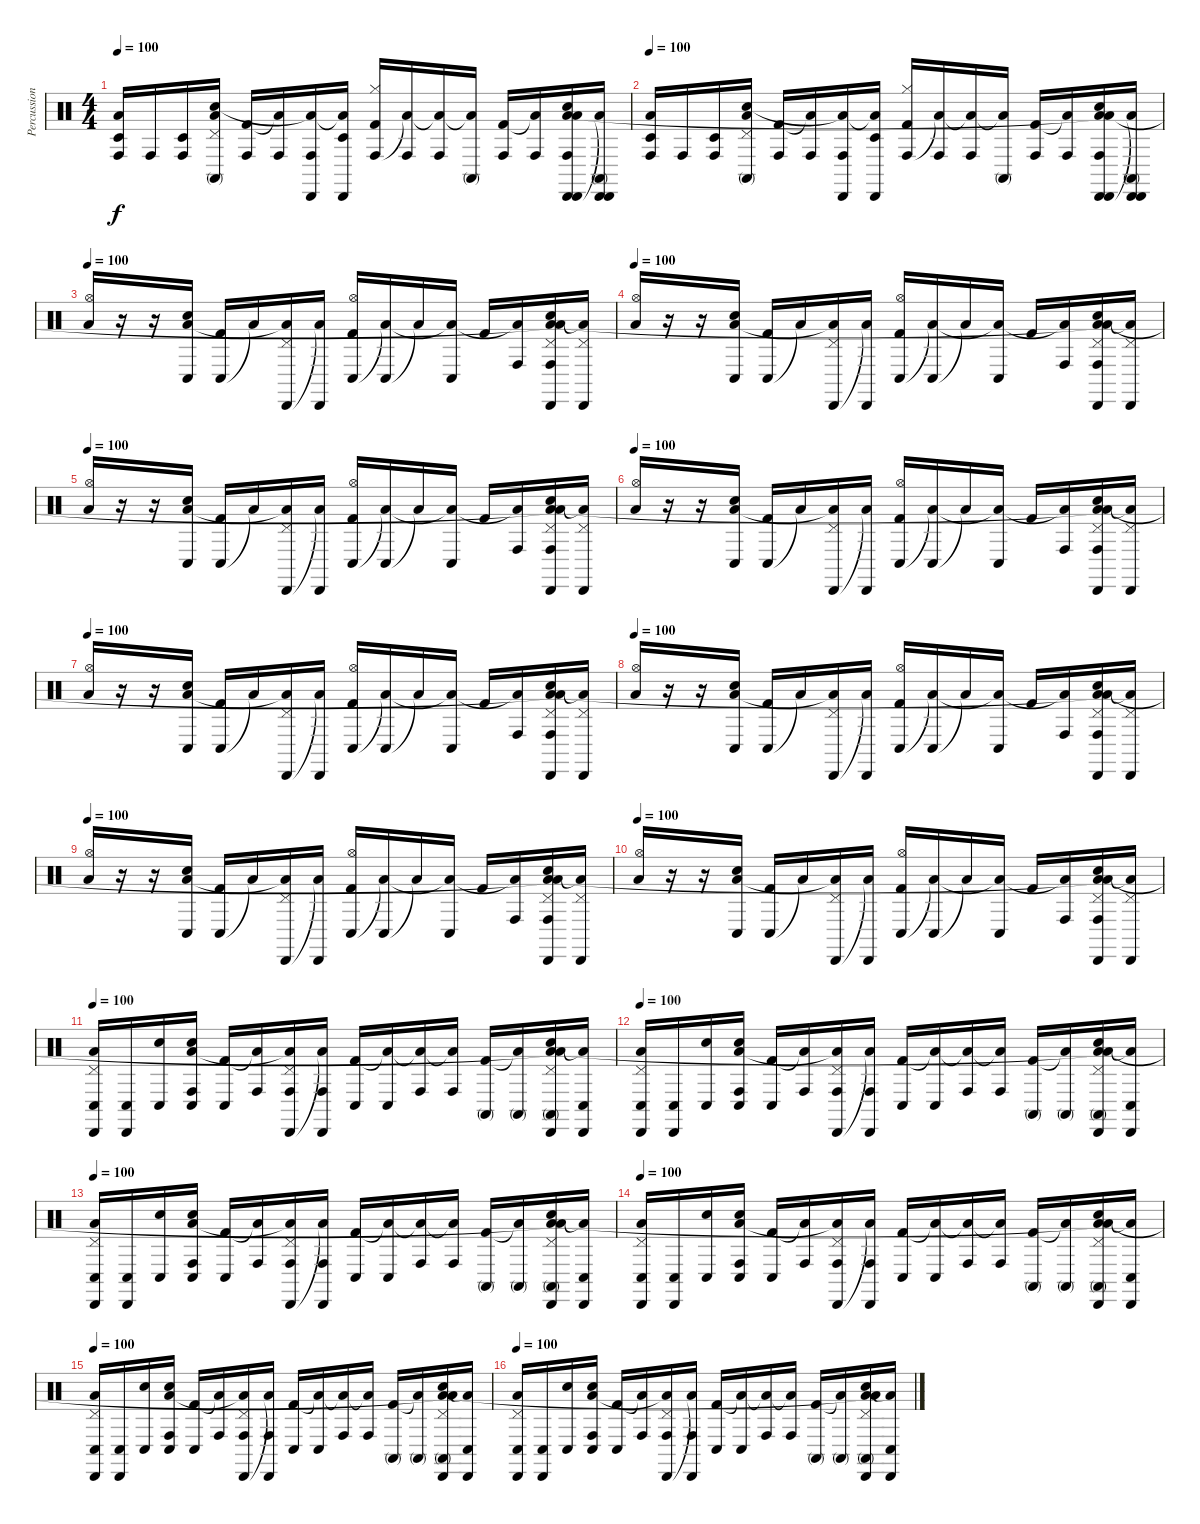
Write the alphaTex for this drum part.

\track ("Percussion" "Percussion") {instrument percussion}
\staff {score}
\articulation defaults
\ts (4 4)
\tempo 100
\clef neutral
\ks c
("Timbale low (hit)" "Conga high (hit)" "Low Floor Tom (hit)").16{dy f} "Conga high (hit)".16 ("Timbale low (hit)" "Conga high (hit)").16 ("Pedal Hi-Hat (hit)" "Conga high (mute)" "Hand Clap (hit)" "Low Tom (hit)").16 ("Conga high (hit)" "Kick (hit) 2").16 ("Conga high (hit)" "Low Tom (hit)"{t}).16 ("Conga high (hit)" "Cabasa (hit)" "Low Tom (hit)"{t}).16 ("Timbale low (hit)" "Cabasa (hit)" "Low Tom (hit)"{t}).16 ("Hi-Hat (closed)" "Conga high (hit)" "Kick (hit) 2").16 ("Conga high (hit)" "Low Tom (hit)"{t}).16 ("Conga high (hit)" "Low Tom (hit)"{t}).16 ("Conga high (mute)" "Low Tom (hit)"{t}).16 ("Conga high (hit)" "Kick (hit) 2").16 ("Conga high (hit)" "Low Tom (hit)"{t}).16 ("Cabasa (hit)" "Conga high (hit)" "Hand Clap (hit)" "Cabasa (hit)" "Low Tom (hit)"{t} "Low Floor Tom (hit)").16 ("Cabasa (hit)" "Conga high (mute)" "Cabasa (hit)" "Low Tom (hit)"{t}).16 |
\tempo 100
("Timbale low (hit)" "Conga high (hit)" "Low Floor Tom (hit)").16 "Conga high (hit)".16 ("Timbale low (hit)" "Conga high (hit)").16 ("Pedal Hi-Hat (hit)" "Conga high (mute)" "Hand Clap (hit)" "Low Tom (hit)").16 ("Conga high (hit)" "Kick (hit) 2").16 ("Conga high (hit)" "Low Tom (hit)"{t}).16 ("Conga high (hit)" "Cabasa (hit)" "Low Tom (hit)"{t}).16 ("Timbale low (hit)" "Cabasa (hit)" "Low Tom (hit)"{t}).16 ("Hi-Hat (closed)" "Conga high (hit)" "Kick (hit) 2").16 ("Conga high (hit)" "Low Tom (hit)"{t}).16 ("Conga high (hit)" "Low Tom (hit)"{t}).16 ("Conga high (mute)" "Low Tom (hit)"{t}).16 ("Conga high (hit)" "Kick (hit) 2").16 ("Conga high (hit)" "Low Tom (hit)"{t}).16 ("Cabasa (hit)" "Conga high (hit)" "Hand Clap (hit)" "Cabasa (hit)" "Low Tom (hit)"{t} "Low Floor Tom (hit)").16 ("Cabasa (hit)" "Conga high (mute)" "Cabasa (hit)" "Low Tom (hit)"{t}).16 |
\tempo 100
("Hi-Hat (open)" "Low Floor Tom (hit)").16 r.16 r.16 ("Conga low (hit)" "Hand Clap (hit)" "Low Tom (hit)").16 ("Conga low (hit)" "Kick (hit) 2").16 "Low Tom (hit)"{t}.16 ("Pedal Hi-Hat (hit)" "Cabasa (hit)" "Low Tom (hit)"{t}).16 ("Cabasa (hit)" "Low Tom (hit)"{t}).16 ("Hi-Hat (open)" "Conga low (hit)" "Kick (hit) 2").16 ("Conga low (hit)" "Low Tom (hit)"{t}).16 "Low Tom (hit)"{t}.16 ("Conga low (hit)" "Low Tom (hit)"{t}).16 "Kick (hit) 2".16 ("Conga high (hit)" "Low Tom (hit)"{t}).16 ("Pedal Hi-Hat (hit)" "Conga high (hit)" "Hand Clap (hit)" "Cabasa (hit)" "Low Tom (hit)"{t} "Low Floor Tom (hit)").16 ("Pedal Hi-Hat (hit)" "Cabasa (hit)" "Low Tom (hit)"{t}).16 |
\tempo 100
("Hi-Hat (open)" "Low Floor Tom (hit)").16 r.16 r.16 ("Conga low (hit)" "Hand Clap (hit)" "Low Tom (hit)").16 ("Conga low (hit)" "Kick (hit) 2").16 "Low Tom (hit)"{t}.16 ("Pedal Hi-Hat (hit)" "Cabasa (hit)" "Low Tom (hit)"{t}).16 ("Cabasa (hit)" "Low Tom (hit)"{t}).16 ("Hi-Hat (open)" "Conga low (hit)" "Kick (hit) 2").16 ("Conga low (hit)" "Low Tom (hit)"{t}).16 "Low Tom (hit)"{t}.16 ("Conga low (hit)" "Low Tom (hit)"{t}).16 "Kick (hit) 2".16 ("Conga high (hit)" "Low Tom (hit)"{t}).16 ("Pedal Hi-Hat (hit)" "Conga high (hit)" "Hand Clap (hit)" "Cabasa (hit)" "Low Tom (hit)"{t} "Low Floor Tom (hit)").16 ("Pedal Hi-Hat (hit)" "Cabasa (hit)" "Low Tom (hit)"{t}).16 |
\tempo 100
("Hi-Hat (open)" "Low Floor Tom (hit)").16 r.16 r.16 ("Conga low (hit)" "Hand Clap (hit)" "Low Tom (hit)").16 ("Conga low (hit)" "Kick (hit) 2").16 "Low Tom (hit)"{t}.16 ("Pedal Hi-Hat (hit)" "Cabasa (hit)" "Low Tom (hit)"{t}).16 ("Cabasa (hit)" "Low Tom (hit)"{t}).16 ("Hi-Hat (open)" "Conga low (hit)" "Kick (hit) 2").16 ("Conga low (hit)" "Low Tom (hit)"{t}).16 "Low Tom (hit)"{t}.16 ("Conga low (hit)" "Low Tom (hit)"{t}).16 "Kick (hit) 2".16 ("Conga high (hit)" "Low Tom (hit)"{t}).16 ("Pedal Hi-Hat (hit)" "Conga high (hit)" "Hand Clap (hit)" "Cabasa (hit)" "Low Tom (hit)"{t} "Low Floor Tom (hit)").16 ("Pedal Hi-Hat (hit)" "Cabasa (hit)" "Low Tom (hit)"{t}).16 |
\tempo 100
("Hi-Hat (open)" "Low Floor Tom (hit)").16 r.16 r.16 ("Conga low (hit)" "Hand Clap (hit)" "Low Tom (hit)").16 ("Conga low (hit)" "Kick (hit) 2").16 "Low Tom (hit)"{t}.16 ("Pedal Hi-Hat (hit)" "Cabasa (hit)" "Low Tom (hit)"{t}).16 ("Cabasa (hit)" "Low Tom (hit)"{t}).16 ("Hi-Hat (open)" "Conga low (hit)" "Kick (hit) 2").16 ("Conga low (hit)" "Low Tom (hit)"{t}).16 "Low Tom (hit)"{t}.16 ("Conga low (hit)" "Low Tom (hit)"{t}).16 "Kick (hit) 2".16 ("Conga high (hit)" "Low Tom (hit)"{t}).16 ("Pedal Hi-Hat (hit)" "Conga high (hit)" "Hand Clap (hit)" "Cabasa (hit)" "Low Tom (hit)"{t} "Low Floor Tom (hit)").16 ("Pedal Hi-Hat (hit)" "Cabasa (hit)" "Low Tom (hit)"{t}).16 |
\tempo 100
("Hi-Hat (open)" "Low Floor Tom (hit)").16 r.16 r.16 ("Conga low (hit)" "Hand Clap (hit)" "Low Tom (hit)").16 ("Conga low (hit)" "Kick (hit) 2").16 "Low Tom (hit)"{t}.16 ("Pedal Hi-Hat (hit)" "Cabasa (hit)" "Low Tom (hit)"{t}).16 ("Cabasa (hit)" "Low Tom (hit)"{t}).16 ("Hi-Hat (open)" "Conga low (hit)" "Kick (hit) 2").16 ("Conga low (hit)" "Low Tom (hit)"{t}).16 "Low Tom (hit)"{t}.16 ("Conga low (hit)" "Low Tom (hit)"{t}).16 "Kick (hit) 2".16 ("Conga high (hit)" "Low Tom (hit)"{t}).16 ("Pedal Hi-Hat (hit)" "Conga high (hit)" "Hand Clap (hit)" "Cabasa (hit)" "Low Tom (hit)"{t} "Low Floor Tom (hit)").16 ("Pedal Hi-Hat (hit)" "Cabasa (hit)" "Low Tom (hit)"{t}).16 |
\tempo 100
("Hi-Hat (open)" "Low Floor Tom (hit)").16 r.16 r.16 ("Conga low (hit)" "Hand Clap (hit)" "Low Tom (hit)").16 ("Conga low (hit)" "Kick (hit) 2").16 "Low Tom (hit)"{t}.16 ("Pedal Hi-Hat (hit)" "Cabasa (hit)" "Low Tom (hit)"{t}).16 ("Cabasa (hit)" "Low Tom (hit)"{t}).16 ("Hi-Hat (open)" "Conga low (hit)" "Kick (hit) 2").16 ("Conga low (hit)" "Low Tom (hit)"{t}).16 "Low Tom (hit)"{t}.16 ("Conga low (hit)" "Low Tom (hit)"{t}).16 "Kick (hit) 2".16 ("Conga high (hit)" "Low Tom (hit)"{t}).16 ("Pedal Hi-Hat (hit)" "Conga high (hit)" "Hand Clap (hit)" "Cabasa (hit)" "Low Tom (hit)"{t} "Low Floor Tom (hit)").16 ("Pedal Hi-Hat (hit)" "Cabasa (hit)" "Low Tom (hit)"{t}).16 |
\tempo 100
("Hi-Hat (open)" "Low Floor Tom (hit)").16 r.16 r.16 ("Conga low (hit)" "Hand Clap (hit)" "Low Tom (hit)").16 ("Conga low (hit)" "Kick (hit) 2").16 "Low Tom (hit)"{t}.16 ("Pedal Hi-Hat (hit)" "Cabasa (hit)" "Low Tom (hit)"{t}).16 ("Cabasa (hit)" "Low Tom (hit)"{t}).16 ("Hi-Hat (open)" "Conga low (hit)" "Kick (hit) 2").16 ("Conga low (hit)" "Low Tom (hit)"{t}).16 "Low Tom (hit)"{t}.16 ("Conga low (hit)" "Low Tom (hit)"{t}).16 "Kick (hit) 2".16 ("Conga high (hit)" "Low Tom (hit)"{t}).16 ("Pedal Hi-Hat (hit)" "Conga high (hit)" "Hand Clap (hit)" "Cabasa (hit)" "Low Tom (hit)"{t} "Low Floor Tom (hit)").16 ("Pedal Hi-Hat (hit)" "Cabasa (hit)" "Low Tom (hit)"{t}).16 |
\tempo 100
("Hi-Hat (open)" "Low Floor Tom (hit)").16 r.16 r.16 ("Conga low (hit)" "Hand Clap (hit)" "Low Tom (hit)").16 ("Conga low (hit)" "Kick (hit) 2").16 "Low Tom (hit)"{t}.16 ("Pedal Hi-Hat (hit)" "Cabasa (hit)" "Low Tom (hit)"{t}).16 ("Cabasa (hit)" "Low Tom (hit)"{t}).16 ("Hi-Hat (open)" "Conga low (hit)" "Kick (hit) 2").16 ("Conga low (hit)" "Low Tom (hit)"{t}).16 "Low Tom (hit)"{t}.16 ("Conga low (hit)" "Low Tom (hit)"{t}).16 "Kick (hit) 2".16 ("Conga high (hit)" "Low Tom (hit)"{t}).16 ("Pedal Hi-Hat (hit)" "Conga high (hit)" "Hand Clap (hit)" "Cabasa (hit)" "Low Tom (hit)"{t} "Low Floor Tom (hit)").16 ("Pedal Hi-Hat (hit)" "Cabasa (hit)" "Low Tom (hit)"{t}).16 |
\tempo 100
("Pedal Hi-Hat (hit)" "Conga low (hit)" "Cabasa (hit)" "Low Floor Tom (hit)").16 ("Conga low (hit)" "Cabasa (hit)").16 ("Conga low (hit)" "Hand Clap (hit)").16 ("Conga low (hit)" "Conga high (hit)" "Hand Clap (hit)" "Low Tom (hit)").16 ("Conga low (hit)" "Kick (hit) 2").16 ("Conga high (hit)" "Low Tom (hit)"{t}).16 ("Pedal Hi-Hat (hit)" "Conga high (hit)" "Cabasa (hit)" "Low Tom (hit)"{t}).16 ("Conga high (hit)" "Cabasa (hit)" "Low Tom (hit)"{t}).16 ("Conga low (hit)" "Kick (hit) 2").16 ("Conga low (hit)" "Low Tom (hit)"{t}).16 ("Conga high (hit)" "Low Tom (hit)"{t}).16 ("Conga high (hit)" "Low Tom (hit)"{t}).16 ("Conga high (mute)" "Kick (hit) 2").16 ("Conga high (mute)" "Low Tom (hit)"{t}).16 ("Pedal Hi-Hat (hit)" "Conga high (mute)" "Hand Clap (hit)" "Cabasa (hit)" "Low Tom (hit)"{t} "Low Floor Tom (hit)").16 ("Conga low (hit)" "Cabasa (hit)" "Low Tom (hit)"{t}).16 |
\tempo 100
("Pedal Hi-Hat (hit)" "Conga low (hit)" "Cabasa (hit)" "Low Floor Tom (hit)").16 ("Conga low (hit)" "Cabasa (hit)").16 ("Conga low (hit)" "Hand Clap (hit)").16 ("Conga low (hit)" "Conga high (hit)" "Hand Clap (hit)" "Low Tom (hit)").16 ("Conga low (hit)" "Kick (hit) 2").16 ("Conga high (hit)" "Low Tom (hit)"{t}).16 ("Pedal Hi-Hat (hit)" "Conga high (hit)" "Cabasa (hit)" "Low Tom (hit)"{t}).16 ("Conga high (hit)" "Cabasa (hit)" "Low Tom (hit)"{t}).16 ("Conga low (hit)" "Kick (hit) 2").16 ("Conga low (hit)" "Low Tom (hit)"{t}).16 ("Conga high (hit)" "Low Tom (hit)"{t}).16 ("Conga high (hit)" "Low Tom (hit)"{t}).16 ("Conga high (mute)" "Kick (hit) 2").16 ("Conga high (mute)" "Low Tom (hit)"{t}).16 ("Pedal Hi-Hat (hit)" "Conga high (mute)" "Hand Clap (hit)" "Cabasa (hit)" "Low Tom (hit)"{t} "Low Floor Tom (hit)").16 ("Conga low (hit)" "Cabasa (hit)" "Low Tom (hit)"{t}).16 |
\tempo 100
("Pedal Hi-Hat (hit)" "Conga low (hit)" "Cabasa (hit)" "Low Floor Tom (hit)").16 ("Conga low (hit)" "Cabasa (hit)").16 ("Conga low (hit)" "Hand Clap (hit)").16 ("Conga low (hit)" "Conga high (hit)" "Hand Clap (hit)" "Low Tom (hit)").16 ("Conga low (hit)" "Kick (hit) 2").16 ("Conga high (hit)" "Low Tom (hit)"{t}).16 ("Pedal Hi-Hat (hit)" "Conga high (hit)" "Cabasa (hit)" "Low Tom (hit)"{t}).16 ("Conga high (hit)" "Cabasa (hit)" "Low Tom (hit)"{t}).16 ("Conga low (hit)" "Kick (hit) 2").16 ("Conga low (hit)" "Low Tom (hit)"{t}).16 ("Conga high (hit)" "Low Tom (hit)"{t}).16 ("Conga high (hit)" "Low Tom (hit)"{t}).16 ("Conga high (mute)" "Kick (hit) 2").16 ("Conga high (mute)" "Low Tom (hit)"{t}).16 ("Pedal Hi-Hat (hit)" "Conga high (mute)" "Hand Clap (hit)" "Cabasa (hit)" "Low Tom (hit)"{t} "Low Floor Tom (hit)").16 ("Conga low (hit)" "Cabasa (hit)" "Low Tom (hit)"{t}).16 |
\tempo 100
("Pedal Hi-Hat (hit)" "Conga low (hit)" "Cabasa (hit)" "Low Floor Tom (hit)").16 ("Conga low (hit)" "Cabasa (hit)").16 ("Conga low (hit)" "Hand Clap (hit)").16 ("Conga low (hit)" "Conga high (hit)" "Hand Clap (hit)" "Low Tom (hit)").16 ("Conga low (hit)" "Kick (hit) 2").16 ("Conga high (hit)" "Low Tom (hit)"{t}).16 ("Pedal Hi-Hat (hit)" "Conga high (hit)" "Cabasa (hit)" "Low Tom (hit)"{t}).16 ("Conga high (hit)" "Cabasa (hit)" "Low Tom (hit)"{t}).16 ("Conga low (hit)" "Kick (hit) 2").16 ("Conga low (hit)" "Low Tom (hit)"{t}).16 ("Conga high (hit)" "Low Tom (hit)"{t}).16 ("Conga high (hit)" "Low Tom (hit)"{t}).16 ("Conga high (mute)" "Kick (hit) 2").16 ("Conga high (mute)" "Low Tom (hit)"{t}).16 ("Pedal Hi-Hat (hit)" "Conga high (mute)" "Hand Clap (hit)" "Cabasa (hit)" "Low Tom (hit)"{t} "Low Floor Tom (hit)").16 ("Conga low (hit)" "Cabasa (hit)" "Low Tom (hit)"{t}).16 |
\tempo 100
("Pedal Hi-Hat (hit)" "Conga low (hit)" "Cabasa (hit)" "Low Floor Tom (hit)").16 ("Conga low (hit)" "Cabasa (hit)").16 ("Conga low (hit)" "Hand Clap (hit)").16 ("Conga low (hit)" "Conga high (hit)" "Hand Clap (hit)" "Low Tom (hit)").16 ("Conga low (hit)" "Kick (hit) 2").16 ("Conga high (hit)" "Low Tom (hit)"{t}).16 ("Pedal Hi-Hat (hit)" "Conga high (hit)" "Cabasa (hit)" "Low Tom (hit)"{t}).16 ("Conga high (hit)" "Cabasa (hit)" "Low Tom (hit)"{t}).16 ("Conga low (hit)" "Kick (hit) 2").16 ("Conga low (hit)" "Low Tom (hit)"{t}).16 ("Conga high (hit)" "Low Tom (hit)"{t}).16 ("Conga high (hit)" "Low Tom (hit)"{t}).16 ("Conga high (mute)" "Kick (hit) 2").16 ("Conga high (mute)" "Low Tom (hit)"{t}).16 ("Pedal Hi-Hat (hit)" "Conga high (mute)" "Hand Clap (hit)" "Cabasa (hit)" "Low Tom (hit)"{t} "Low Floor Tom (hit)").16 ("Conga low (hit)" "Cabasa (hit)" "Low Tom (hit)"{t}).16 |
\tempo 100
("Pedal Hi-Hat (hit)" "Conga low (hit)" "Cabasa (hit)" "Low Floor Tom (hit)").16 ("Conga low (hit)" "Cabasa (hit)").16 ("Conga low (hit)" "Hand Clap (hit)").16 ("Conga low (hit)" "Conga high (hit)" "Hand Clap (hit)" "Low Tom (hit)").16 ("Conga low (hit)" "Kick (hit) 2").16 ("Conga high (hit)" "Low Tom (hit)"{t}).16 ("Pedal Hi-Hat (hit)" "Conga high (hit)" "Cabasa (hit)" "Low Tom (hit)"{t}).16 ("Conga high (hit)" "Cabasa (hit)" "Low Tom (hit)"{t}).16 ("Conga low (hit)" "Kick (hit) 2").16 ("Conga low (hit)" "Low Tom (hit)"{t}).16 ("Conga high (hit)" "Low Tom (hit)"{t}).16 ("Conga high (hit)" "Low Tom (hit)"{t}).16 ("Conga high (mute)" "Kick (hit) 2").16 ("Conga high (mute)" "Low Tom (hit)"{t}).16 ("Pedal Hi-Hat (hit)" "Conga high (mute)" "Hand Clap (hit)" "Cabasa (hit)" "Low Tom (hit)"{t} "Low Floor Tom (hit)").16 ("Conga low (hit)" "Cabasa (hit)" "Low Tom (hit)"{t}).16
